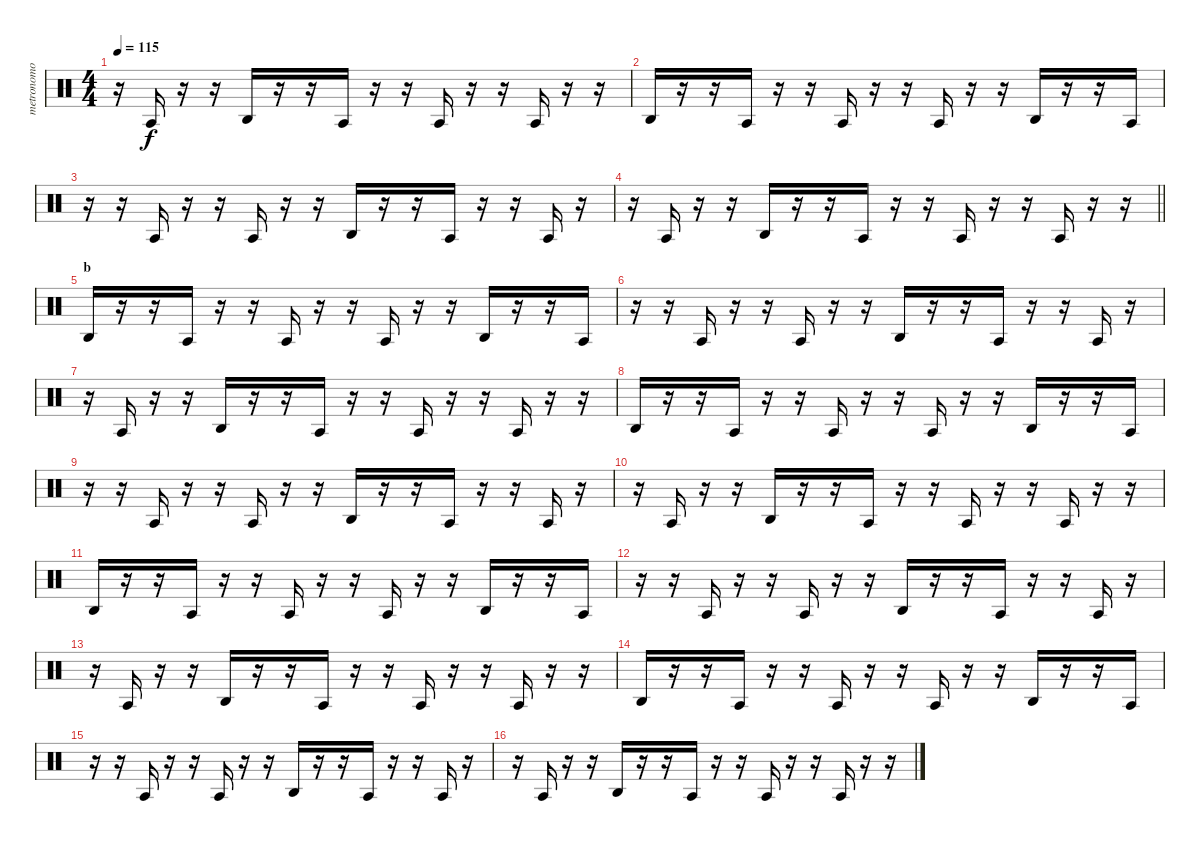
\track ("metronomo" "metronomo") {instrument percussion}
\staff {score}
\articulation defaults
\ts (4 4)
\tempo 115
\clef neutral
\ks c
r.16{dy f} "Agogo tow (hit)".16 r.16 r.16 "Agogo high (hit)".16 r.16 r.16 "Agogo tow (hit)".16 r.16 r.16 "Agogo tow (hit)".16 r.16 r.16 "Agogo tow (hit)".16 r.16 r.16 |
"Agogo high (hit)".16 r.16 r.16 "Agogo tow (hit)".16 r.16 r.16 "Agogo tow (hit)".16 r.16 r.16 "Agogo tow (hit)".16 r.16 r.16 "Agogo high (hit)".16 r.16 r.16 "Agogo tow (hit)".16 |
r.16 r.16 "Agogo tow (hit)".16 r.16 r.16 "Agogo tow (hit)".16 r.16 r.16 "Agogo high (hit)".16 r.16 r.16 "Agogo tow (hit)".16 r.16 r.16 "Agogo tow (hit)".16 r.16 |
\barLineRight lightlight
r.16 "Agogo tow (hit)".16 r.16 r.16 "Agogo high (hit)".16 r.16 r.16 "Agogo tow (hit)".16 r.16 r.16 "Agogo tow (hit)".16 r.16 r.16 "Agogo tow (hit)".16 r.16 r.16 |
\section ("" "b")
"Agogo high (hit)".16 r.16 r.16 "Agogo tow (hit)".16 r.16 r.16 "Agogo tow (hit)".16 r.16 r.16 "Agogo tow (hit)".16 r.16 r.16 "Agogo high (hit)".16 r.16 r.16 "Agogo tow (hit)".16 |
r.16 r.16 "Agogo tow (hit)".16 r.16 r.16 "Agogo tow (hit)".16 r.16 r.16 "Agogo high (hit)".16 r.16 r.16 "Agogo tow (hit)".16 r.16 r.16 "Agogo tow (hit)".16 r.16 |
r.16 "Agogo tow (hit)".16 r.16 r.16 "Agogo high (hit)".16 r.16 r.16 "Agogo tow (hit)".16 r.16 r.16 "Agogo tow (hit)".16 r.16 r.16 "Agogo tow (hit)".16 r.16 r.16 |
"Agogo high (hit)".16 r.16 r.16 "Agogo tow (hit)".16 r.16 r.16 "Agogo tow (hit)".16 r.16 r.16 "Agogo tow (hit)".16 r.16 r.16 "Agogo high (hit)".16 r.16 r.16 "Agogo tow (hit)".16 |
r.16 r.16 "Agogo tow (hit)".16 r.16 r.16 "Agogo tow (hit)".16 r.16 r.16 "Agogo high (hit)".16 r.16 r.16 "Agogo tow (hit)".16 r.16 r.16 "Agogo tow (hit)".16 r.16 |
r.16 "Agogo tow (hit)".16 r.16 r.16 "Agogo high (hit)".16 r.16 r.16 "Agogo tow (hit)".16 r.16 r.16 "Agogo tow (hit)".16 r.16 r.16 "Agogo tow (hit)".16 r.16 r.16 |
"Agogo high (hit)".16 r.16 r.16 "Agogo tow (hit)".16 r.16 r.16 "Agogo tow (hit)".16 r.16 r.16 "Agogo tow (hit)".16 r.16 r.16 "Agogo high (hit)".16 r.16 r.16 "Agogo tow (hit)".16 |
r.16 r.16 "Agogo tow (hit)".16 r.16 r.16 "Agogo tow (hit)".16 r.16 r.16 "Agogo high (hit)".16 r.16 r.16 "Agogo tow (hit)".16 r.16 r.16 "Agogo tow (hit)".16 r.16 |
r.16 "Agogo tow (hit)".16 r.16 r.16 "Agogo high (hit)".16 r.16 r.16 "Agogo tow (hit)".16 r.16 r.16 "Agogo tow (hit)".16 r.16 r.16 "Agogo tow (hit)".16 r.16 r.16 |
"Agogo high (hit)".16 r.16 r.16 "Agogo tow (hit)".16 r.16 r.16 "Agogo tow (hit)".16 r.16 r.16 "Agogo tow (hit)".16 r.16 r.16 "Agogo high (hit)".16 r.16 r.16 "Agogo tow (hit)".16 |
r.16 r.16 "Agogo tow (hit)".16 r.16 r.16 "Agogo tow (hit)".16 r.16 r.16 "Agogo high (hit)".16 r.16 r.16 "Agogo tow (hit)".16 r.16 r.16 "Agogo tow (hit)".16 r.16 |
r.16 "Agogo tow (hit)".16 r.16 r.16 "Agogo high (hit)".16 r.16 r.16 "Agogo tow (hit)".16 r.16 r.16 "Agogo tow (hit)".16 r.16 r.16 "Agogo tow (hit)".16 r.16 r.16
